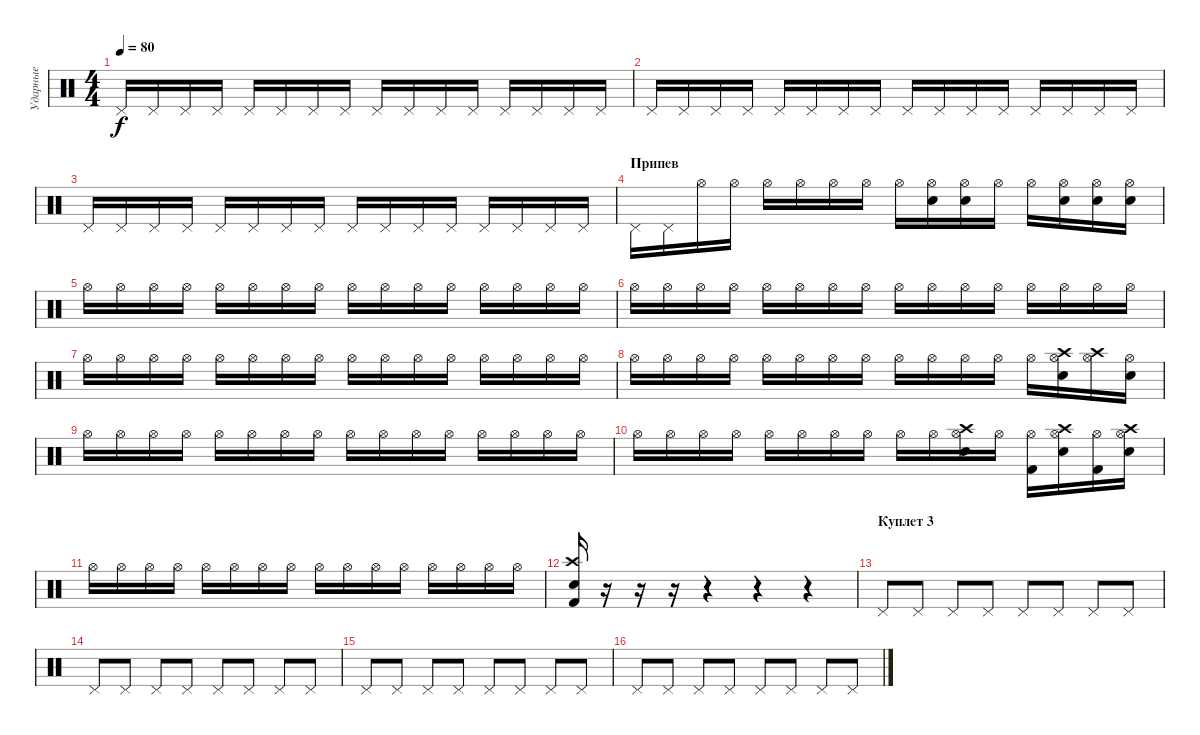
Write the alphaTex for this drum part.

\track ("Ударные" "Ударные") {instrument percussion}
\staff {score}
\articulation defaults
\ts (4 4)
\tempo 80
\clef neutral
\ks c "Pedal Hi-Hat (hit)".16{dy f} "Pedal Hi-Hat (hit)".16 "Pedal Hi-Hat (hit)".16 "Pedal Hi-Hat (hit)".16 "Pedal Hi-Hat (hit)".16 "Pedal Hi-Hat (hit)".16 "Pedal Hi-Hat (hit)".16 "Pedal Hi-Hat (hit)".16 "Pedal Hi-Hat (hit)".16 "Pedal Hi-Hat (hit)".16 "Pedal Hi-Hat (hit)".16 "Pedal Hi-Hat (hit)".16 "Pedal Hi-Hat (hit)".16 "Pedal Hi-Hat (hit)".16 "Pedal Hi-Hat (hit)".16 "Pedal Hi-Hat (hit)".16
|
"Pedal Hi-Hat (hit)".16 "Pedal Hi-Hat (hit)".16 "Pedal Hi-Hat (hit)".16 "Pedal Hi-Hat (hit)".16 "Pedal Hi-Hat (hit)".16 "Pedal Hi-Hat (hit)".16 "Pedal Hi-Hat (hit)".16 "Pedal Hi-Hat (hit)".16 "Pedal Hi-Hat (hit)".16 "Pedal Hi-Hat (hit)".16 "Pedal Hi-Hat (hit)".16 "Pedal Hi-Hat (hit)".16 "Pedal Hi-Hat (hit)".16 "Pedal Hi-Hat (hit)".16 "Pedal Hi-Hat (hit)".16 "Pedal Hi-Hat (hit)".16 |
"Pedal Hi-Hat (hit)".16 "Pedal Hi-Hat (hit)".16 "Pedal Hi-Hat (hit)".16 "Pedal Hi-Hat (hit)".16 "Pedal Hi-Hat (hit)".16 "Pedal Hi-Hat (hit)".16 "Pedal Hi-Hat (hit)".16 "Pedal Hi-Hat (hit)".16 "Pedal Hi-Hat (hit)".16 "Pedal Hi-Hat (hit)".16 "Pedal Hi-Hat (hit)".16 "Pedal Hi-Hat (hit)".16 "Pedal Hi-Hat (hit)".16 "Pedal Hi-Hat (hit)".16 "Pedal Hi-Hat (hit)".16 "Pedal Hi-Hat (hit)".16 |
\section ("" "Припев")
"Pedal Hi-Hat (hit)".16 "Pedal Hi-Hat (hit)".16 "Hi-Hat (open)".16 "Hi-Hat (open)".16 "Hi-Hat (open)".16 "Hi-Hat (open)".16 "Hi-Hat (open)".16 "Hi-Hat (open)".16 "Hi-Hat (open)".16 ("Hi-Hat (open)" "Snare (hit) 2").16 ("Hi-Hat (open)" "Snare (hit) 2").16 "Hi-Hat (open)".16 "Hi-Hat (open)".16 ("Hi-Hat (open)" "Snare (hit) 2").16 ("Hi-Hat (open)" "Snare (hit) 2").16 ("Hi-Hat (open)" "Snare (hit) 2").16 |
"Hi-Hat (open)".16 "Hi-Hat (open)".16 "Hi-Hat (open)".16 "Hi-Hat (open)".16 "Hi-Hat (open)".16 "Hi-Hat (open)".16 "Hi-Hat (open)".16 "Hi-Hat (open)".16 "Hi-Hat (open)".16 "Hi-Hat (open)".16 "Hi-Hat (open)".16 "Hi-Hat (open)".16 "Hi-Hat (open)".16 "Hi-Hat (open)".16 "Hi-Hat (open)".16 "Hi-Hat (open)".16 |
"Hi-Hat (open)".16 "Hi-Hat (open)".16 "Hi-Hat (open)".16 "Hi-Hat (open)".16 "Hi-Hat (open)".16 "Hi-Hat (open)".16 "Hi-Hat (open)".16 "Hi-Hat (open)".16 "Hi-Hat (open)".16 "Hi-Hat (open)".16 "Hi-Hat (open)".16 "Hi-Hat (open)".16 "Hi-Hat (open)".16 "Hi-Hat (open)".16 "Hi-Hat (open)".16 "Hi-Hat (open)".16 |
"Hi-Hat (open)".16 "Hi-Hat (open)".16 "Hi-Hat (open)".16 "Hi-Hat (open)".16 "Hi-Hat (open)".16 "Hi-Hat (open)".16 "Hi-Hat (open)".16 "Hi-Hat (open)".16 "Hi-Hat (open)".16 "Hi-Hat (open)".16 "Hi-Hat (open)".16 "Hi-Hat (open)".16 "Hi-Hat (open)".16 "Hi-Hat (open)".16 "Hi-Hat (open)".16 "Hi-Hat (open)".16 |
"Hi-Hat (open)".16 "Hi-Hat (open)".16 "Hi-Hat (open)".16 "Hi-Hat (open)".16 "Hi-Hat (open)".16 "Hi-Hat (open)".16 "Hi-Hat (open)".16 "Hi-Hat (open)".16 "Hi-Hat (open)".16 "Hi-Hat (open)".16 "Hi-Hat (open)".16 "Hi-Hat (open)".16 "Hi-Hat (open)".16 ("Hi-Hat (open)" "Crash high (hit)" "Snare (hit) 2").16 ("Hi-Hat (open)" "Crash high (hit)").16 ("Hi-Hat (open)" "Snare (hit) 2").16 |
"Hi-Hat (open)".16 "Hi-Hat (open)".16 "Hi-Hat (open)".16 "Hi-Hat (open)".16 "Hi-Hat (open)".16 "Hi-Hat (open)".16 "Hi-Hat (open)".16 "Hi-Hat (open)".16 "Hi-Hat (open)".16 "Hi-Hat (open)".16 "Hi-Hat (open)".16 "Hi-Hat (open)".16 "Hi-Hat (open)".16 "Hi-Hat (open)".16 "Hi-Hat (open)".16 "Hi-Hat (open)".16 |
"Hi-Hat (open)".16 "Hi-Hat (open)".16 "Hi-Hat (open)".16 "Hi-Hat (open)".16 "Hi-Hat (open)".16 "Hi-Hat (open)".16 "Hi-Hat (open)".16 "Hi-Hat (open)".16 "Hi-Hat (open)".16 "Hi-Hat (open)".16 ("Hi-Hat (open)" "Crash high (hit)" "Snare (hit) 2").16 "Hi-Hat (open)".16 ("Hi-Hat (open)" "Kick (hit) 2").16 ("Hi-Hat (open)" "Crash high (hit)" "Snare (hit) 2").16 ("Hi-Hat (open)" "Kick (hit) 2").16 ("Hi-Hat (open)" "Crash high (hit)" "Snare (hit) 2").16 |
"Hi-Hat (open)".16 "Hi-Hat (open)".16 "Hi-Hat (open)".16 "Hi-Hat (open)".16 "Hi-Hat (open)".16 "Hi-Hat (open)".16 "Hi-Hat (open)".16 "Hi-Hat (open)".16 "Hi-Hat (open)".16 "Hi-Hat (open)".16 "Hi-Hat (open)".16 "Hi-Hat (open)".16 "Hi-Hat (open)".16 "Hi-Hat (open)".16 "Hi-Hat (open)".16 "Hi-Hat (open)".16 |
("Crash high (hit)" "Snare (hit) 2" "Kick (hit) 2").16 r.16 r.16 r.16 r.4 r.4 r.4 |
\section ("" "Куплет 3")
"Pedal Hi-Hat (hit)".8 "Pedal Hi-Hat (hit)".8 "Pedal Hi-Hat (hit)".8 "Pedal Hi-Hat (hit)".8 "Pedal Hi-Hat (hit)".8 "Pedal Hi-Hat (hit)".8 "Pedal Hi-Hat (hit)".8 "Pedal Hi-Hat (hit)".8 |
"Pedal Hi-Hat (hit)".8 "Pedal Hi-Hat (hit)".8 "Pedal Hi-Hat (hit)".8 "Pedal Hi-Hat (hit)".8 "Pedal Hi-Hat (hit)".8 "Pedal Hi-Hat (hit)".8 "Pedal Hi-Hat (hit)".8 "Pedal Hi-Hat (hit)".8 |
"Pedal Hi-Hat (hit)".8 "Pedal Hi-Hat (hit)".8 "Pedal Hi-Hat (hit)".8 "Pedal Hi-Hat (hit)".8 "Pedal Hi-Hat (hit)".8 "Pedal Hi-Hat (hit)".8 "Pedal Hi-Hat (hit)".8 "Pedal Hi-Hat (hit)".8 |
"Pedal Hi-Hat (hit)".8 "Pedal Hi-Hat (hit)".8 "Pedal Hi-Hat (hit)".8 "Pedal Hi-Hat (hit)".8 "Pedal Hi-Hat (hit)".8 "Pedal Hi-Hat (hit)".8 "Pedal Hi-Hat (hit)".8 "Pedal Hi-Hat (hit)".8
